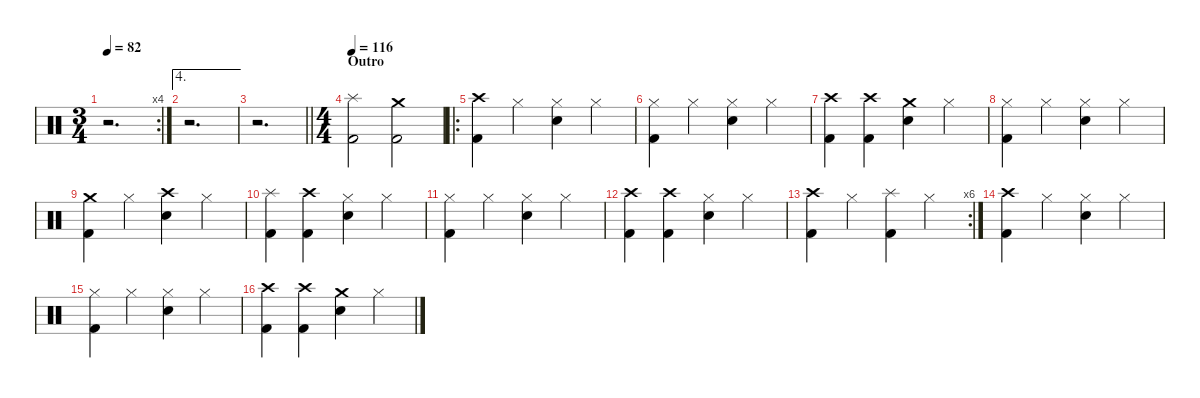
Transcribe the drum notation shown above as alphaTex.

\defaultSystemsLayout 4
\hideDynamics
\bracketExtendMode nobrackets
\singleTrackTrackNamePolicy hidden
\multiTrackTrackNamePolicy hidden
\firstSystemTrackNameMode fullname
\otherSystemsTrackNameOrientation horizontal
\track ("Drums" "drm.") {defaultSystemsLayout 4 instrument percussion}
\staff {score}
\articulation defaults
\rc 4
\ts (3 4)
\tempo 82
\clef neutral
\ks c
r.2{d dy f beam Down} |
\ae 4
r.2{d beam Down} |
\barLineRight lightlight
r.2{d beam Down} |
\ts (4 4)
\beaming (8 2 2 2 2)
\section ("" "Outro")
\tempo 116
("Splash (hit)" "Kick (hit) 2").2{dy fff beam Down} ("Crash medium (hit)" "Kick (hit) 2").2{beam Down} |
\ro
("Crash high (hit)" "Kick (hit) 2").4{dy f beam Down} "Hi-Hat (closed)".4{beam Down} ("Hi-Hat (closed)" "Snare (hit) 2").4{beam Down} "Hi-Hat (closed)".4{beam Down} |
("Hi-Hat (closed)" "Kick (hit) 2").4{beam Down} "Hi-Hat (closed)".4{beam Down} ("Hi-Hat (closed)" "Snare (hit) 2").4{beam Down} "Hi-Hat (closed)".4{beam Down} |
("Crash high (hit)" "Kick (hit) 2").4{beam Down} ("Crash high (hit)" "Kick (hit) 2").4{beam Down} ("Crash medium (hit)" "Snare (hit) 2").4{beam Down} "Hi-Hat (closed)".4{beam Down} |
("Hi-Hat (closed)" "Kick (hit) 2").4{beam Down} "Hi-Hat (closed)".4{beam Down} ("Hi-Hat (closed)" "Snare (hit) 2").4{beam Down} "Hi-Hat (closed)".4{beam Down} |
("Crash medium (hit)" "Kick (hit) 2").4{beam Down} "Hi-Hat (closed)".4{beam Down} ("Crash high (hit)" "Snare (hit) 2").4{beam Down} "Hi-Hat (closed)".4{beam Down} |
("Splash (hit)" "Kick (hit) 2").4{dy fff beam Down} ("Crash high (hit)" "Kick (hit) 2").4{dy f beam Down} ("Hi-Hat (closed)" "Snare (hit) 2").4{beam Down} "Hi-Hat (closed)".4{beam Down} |
("Hi-Hat (closed)" "Kick (hit) 2").4{beam Down} "Hi-Hat (closed)".4{beam Down} ("Hi-Hat (closed)" "Snare (hit) 2").4{beam Down} "Hi-Hat (closed)".4{beam Down} |
("Crash high (hit)" "Kick (hit) 2").4{beam Down} ("Crash high (hit)" "Kick (hit) 2").4{beam Down} ("Hi-Hat (closed)" "Snare (hit) 2").4{beam Down} "Hi-Hat (closed)".4{beam Down} |
\rc 6
("Crash high (hit)" "Kick (hit) 2").4{beam Down} "Hi-Hat (closed)".4{beam Down} ("Splash (hit)" "Kick (hit) 2").4{dy fff beam Down} "Hi-Hat (closed)".4{dy f beam Down} |
("Crash high (hit)" "Kick (hit) 2").4{beam Down} "Hi-Hat (closed)".4{beam Down} ("Hi-Hat (closed)" "Snare (hit) 2").4{beam Down} "Hi-Hat (closed)".4{beam Down} |
("Hi-Hat (closed)" "Kick (hit) 2").4{beam Down} "Hi-Hat (closed)".4{beam Down} ("Hi-Hat (closed)" "Snare (hit) 2").4{beam Down} "Hi-Hat (closed)".4{beam Down} |
("Crash high (hit)" "Kick (hit) 2").4{beam Down} ("Crash high (hit)" "Kick (hit) 2").4{beam Down} ("Crash medium (hit)" "Snare (hit) 2").4{beam Down} "Hi-Hat (closed)".4{beam Down}
